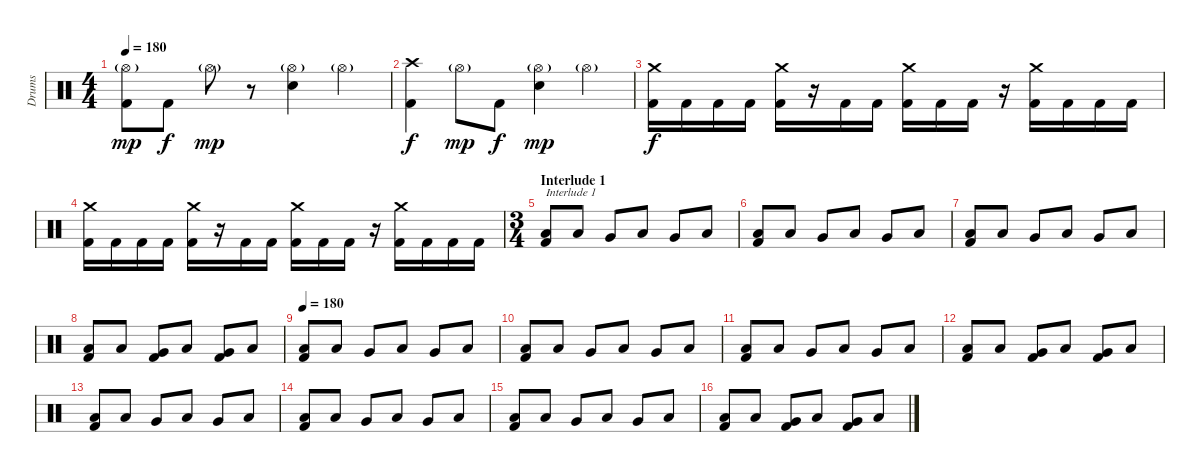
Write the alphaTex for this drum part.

\track ("Drums" "Drums") {instrument percussion}
\staff {score}
\articulation defaults
\ts (4 4)
\tempo 180
\clef neutral
\ks c
("Kick (hit) 2" "Hi-Hat (open)"{g}).8{dy mp} "Kick (hit) 2".8{dy f} "Hi-Hat (open)"{g}.8{dy mp} r.8 ("Hi-Hat (open)"{g} "Electric Snare (hit)").4 "Hi-Hat (open)"{g}.4 |
("Kick (hit) 2" "Crash high (hit)").4{dy f} "Hi-Hat (open)"{g}.8{dy mp} "Kick (hit) 2".8{dy f} ("Hi-Hat (open)"{g} "Electric Snare (hit)").4{dy mp} "Hi-Hat (open)"{g}.4 |
("Kick (hit) 2" "Crash medium (hit)").16{dy f} "Kick (hit) 2".16 "Kick (hit) 2".16 "Kick (hit) 2".16 ("Kick (hit) 2" "Crash medium (hit)").16 r.16 "Kick (hit) 2".16 "Kick (hit) 2".16 ("Kick (hit) 2" "Crash medium (hit)").16 "Kick (hit) 2".16 "Kick (hit) 2".16 r.16 ("Kick (hit) 2" "Crash medium (hit)").16 "Kick (hit) 2".16 "Kick (hit) 2".16 "Kick (hit) 2".16 |
("Kick (hit) 2" "Crash medium (hit)").16 "Kick (hit) 2".16 "Kick (hit) 2".16 "Kick (hit) 2".16 ("Kick (hit) 2" "Crash medium (hit)").16 r.16 "Kick (hit) 2".16 "Kick (hit) 2".16 ("Kick (hit) 2" "Crash medium (hit)").16 "Kick (hit) 2".16 "Kick (hit) 2".16 r.16 ("Kick (hit) 2" "Crash medium (hit)").16 "Kick (hit) 2".16 "Kick (hit) 2".16 "Kick (hit) 2".16 |
\ts (3 4)
\section ("" "Interlude 1")
("Kick (hit) 2" "Low Tom (hit)").8{txt "Interlude 1"} "Low Floor Tom (hit)".8 "Very Low Tom (hit)".8 "Low Tom (hit)".8 "Very Low Tom (hit)".8 "Low Tom (hit)".8 |
("Kick (hit) 2" "Low Tom (hit)").8 "Low Floor Tom (hit)".8 "Very Low Tom (hit)".8 "Low Tom (hit)".8 "Very Low Tom (hit)".8 "Low Tom (hit)".8 |
("Kick (hit) 2" "Low Tom (hit)").8 "Low Floor Tom (hit)".8 "Very Low Tom (hit)".8 "Low Tom (hit)".8 "Very Low Tom (hit)".8 "Low Tom (hit)".8 |
("Kick (hit) 2" "Low Tom (hit)").8 "Low Floor Tom (hit)".8 ("Kick (hit) 2" "Very Low Tom (hit)").8 "Low Tom (hit)".8 ("Kick (hit) 2" "Very Low Tom (hit)").8 "Low Tom (hit)".8 |
\tempo 180
("Kick (hit) 2" "Low Tom (hit)").8 "Low Floor Tom (hit)".8 "Very Low Tom (hit)".8 "Low Tom (hit)".8 "Very Low Tom (hit)".8 "Low Tom (hit)".8 |
("Kick (hit) 2" "Low Tom (hit)").8 "Low Floor Tom (hit)".8 "Very Low Tom (hit)".8 "Low Tom (hit)".8 "Very Low Tom (hit)".8 "Low Tom (hit)".8 |
("Kick (hit) 2" "Low Tom (hit)").8 "Low Floor Tom (hit)".8 "Very Low Tom (hit)".8 "Low Tom (hit)".8 "Very Low Tom (hit)".8 "Low Tom (hit)".8 |
("Kick (hit) 2" "Low Tom (hit)").8 "Low Floor Tom (hit)".8 ("Kick (hit) 2" "Very Low Tom (hit)").8 "Low Tom (hit)".8 ("Kick (hit) 2" "Very Low Tom (hit)").8 "Low Tom (hit)".8 |
("Kick (hit) 2" "Low Tom (hit)").8 "Low Floor Tom (hit)".8 "Very Low Tom (hit)".8 "Low Tom (hit)".8 "Very Low Tom (hit)".8 "Low Tom (hit)".8 |
("Kick (hit) 2" "Low Tom (hit)").8 "Low Floor Tom (hit)".8 "Very Low Tom (hit)".8 "Low Tom (hit)".8 "Very Low Tom (hit)".8 "Low Tom (hit)".8 |
("Kick (hit) 2" "Low Tom (hit)").8 "Low Floor Tom (hit)".8 "Very Low Tom (hit)".8 "Low Tom (hit)".8 "Very Low Tom (hit)".8 "Low Tom (hit)".8 |
("Kick (hit) 2" "Low Tom (hit)").8 "Low Floor Tom (hit)".8 ("Kick (hit) 2" "Very Low Tom (hit)").8 "Low Tom (hit)".8 ("Kick (hit) 2" "Very Low Tom (hit)").8 "Low Tom (hit)".8
